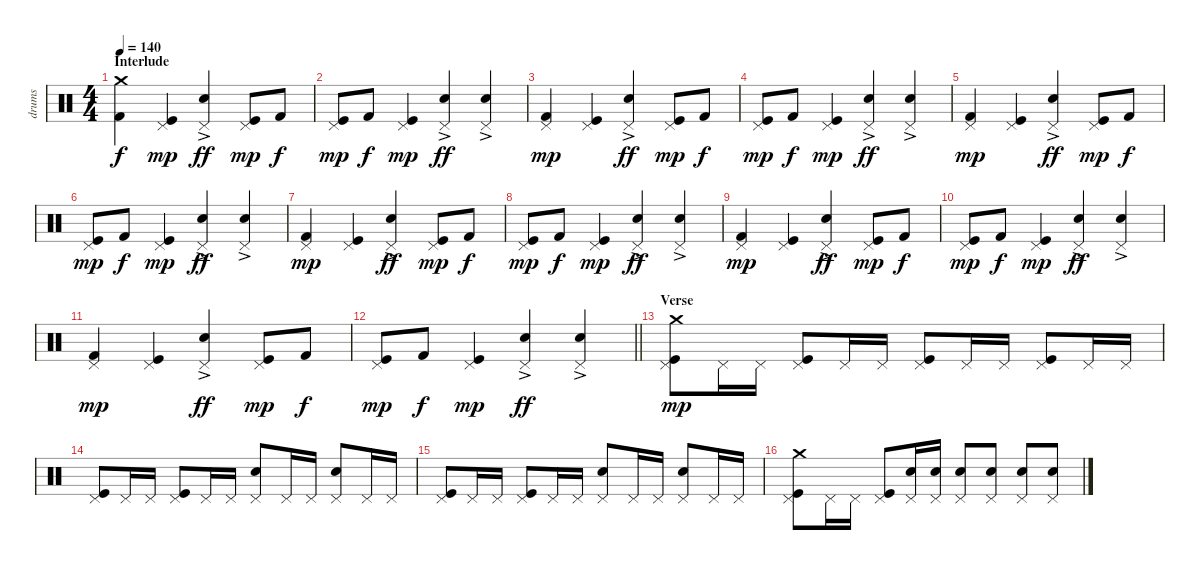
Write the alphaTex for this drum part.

\track ("drums" "drums") {instrument percussion}
\staff {score}
\articulation defaults
\ts (4 4)
\section ("" "Interlude")
\tempo 140
\clef neutral
\ks c
("Crash medium (hit)" "Kick (hit) 2").4{dy f} ("Pedal Hi-Hat (hit)" "Kick (hit)").4{dy mp} ("Pedal Hi-Hat (hit)" "Snare (hit) 2"{ac}).4{dy ff} ("Pedal Hi-Hat (hit)" "Kick (hit)").8{dy mp} "Kick (hit) 2".8{dy f} |
("Pedal Hi-Hat (hit)" "Kick (hit)").8{dy mp} "Kick (hit) 2".8{dy f} ("Pedal Hi-Hat (hit)" "Kick (hit)").4{dy mp} ("Pedal Hi-Hat (hit)" "Snare (hit) 2"{ac}).4{dy ff} ("Pedal Hi-Hat (hit)" "Snare (hit) 2"{ac}).4 |
("Pedal Hi-Hat (hit)" "Kick (hit) 2").4{dy mp} ("Pedal Hi-Hat (hit)" "Kick (hit)").4 ("Pedal Hi-Hat (hit)" "Snare (hit) 2"{ac}).4{dy ff} ("Pedal Hi-Hat (hit)" "Kick (hit)").8{dy mp} "Kick (hit) 2".8{dy f} |
("Pedal Hi-Hat (hit)" "Kick (hit)").8{dy mp} "Kick (hit) 2".8{dy f} ("Pedal Hi-Hat (hit)" "Kick (hit)").4{dy mp} ("Pedal Hi-Hat (hit)" "Snare (hit) 2"{ac}).4{dy ff} ("Pedal Hi-Hat (hit)" "Snare (hit) 2"{ac}).4 |
("Pedal Hi-Hat (hit)" "Kick (hit) 2").4{dy mp} ("Pedal Hi-Hat (hit)" "Kick (hit)").4 ("Pedal Hi-Hat (hit)" "Snare (hit) 2"{ac}).4{dy ff} ("Pedal Hi-Hat (hit)" "Kick (hit)").8{dy mp} "Kick (hit) 2".8{dy f} |
("Pedal Hi-Hat (hit)" "Kick (hit)").8{dy mp} "Kick (hit) 2".8{dy f} ("Pedal Hi-Hat (hit)" "Kick (hit)").4{dy mp} ("Pedal Hi-Hat (hit)" "Snare (hit) 2"{ac}).4{dy ff} ("Pedal Hi-Hat (hit)" "Snare (hit) 2"{ac}).4 |
("Pedal Hi-Hat (hit)" "Kick (hit) 2").4{dy mp} ("Pedal Hi-Hat (hit)" "Kick (hit)").4 ("Pedal Hi-Hat (hit)" "Snare (hit) 2"{ac}).4{dy ff} ("Pedal Hi-Hat (hit)" "Kick (hit)").8{dy mp} "Kick (hit) 2".8{dy f} |
("Pedal Hi-Hat (hit)" "Kick (hit)").8{dy mp} "Kick (hit) 2".8{dy f} ("Pedal Hi-Hat (hit)" "Kick (hit)").4{dy mp} ("Pedal Hi-Hat (hit)" "Snare (hit) 2"{ac}).4{dy ff} ("Pedal Hi-Hat (hit)" "Snare (hit) 2"{ac}).4 |
("Pedal Hi-Hat (hit)" "Kick (hit) 2").4{dy mp} ("Pedal Hi-Hat (hit)" "Kick (hit)").4 ("Pedal Hi-Hat (hit)" "Snare (hit) 2"{ac}).4{dy ff} ("Pedal Hi-Hat (hit)" "Kick (hit)").8{dy mp} "Kick (hit) 2".8{dy f} |
("Pedal Hi-Hat (hit)" "Kick (hit)").8{dy mp} "Kick (hit) 2".8{dy f} ("Pedal Hi-Hat (hit)" "Kick (hit)").4{dy mp} ("Pedal Hi-Hat (hit)" "Snare (hit) 2"{ac}).4{dy ff} ("Pedal Hi-Hat (hit)" "Snare (hit) 2"{ac}).4 |
("Pedal Hi-Hat (hit)" "Kick (hit) 2").4{dy mp} ("Pedal Hi-Hat (hit)" "Kick (hit)").4 ("Pedal Hi-Hat (hit)" "Snare (hit) 2"{ac}).4{dy ff} ("Pedal Hi-Hat (hit)" "Kick (hit)").8{dy mp} "Kick (hit) 2".8{dy f} |
\barLineRight lightlight
("Pedal Hi-Hat (hit)" "Kick (hit)").8{dy mp} "Kick (hit) 2".8{dy f} ("Pedal Hi-Hat (hit)" "Kick (hit)").4{dy mp} ("Pedal Hi-Hat (hit)" "Snare (hit) 2"{ac}).4{dy ff} ("Pedal Hi-Hat (hit)" "Snare (hit) 2"{ac}).4 |
\section ("" "Verse")
("Crash medium (hit)" "Pedal Hi-Hat (hit)" "Kick (hit)").8{dy mp} "Pedal Hi-Hat (hit)".16 "Pedal Hi-Hat (hit)".16 ("Pedal Hi-Hat (hit)" "Kick (hit)").8 "Pedal Hi-Hat (hit)".16 "Pedal Hi-Hat (hit)".16 ("Pedal Hi-Hat (hit)" "Kick (hit)").8 "Pedal Hi-Hat (hit)".16 "Pedal Hi-Hat (hit)".16 ("Pedal Hi-Hat (hit)" "Kick (hit)").8 "Pedal Hi-Hat (hit)".16 "Pedal Hi-Hat (hit)".16 |
("Pedal Hi-Hat (hit)" "Kick (hit)").8 "Pedal Hi-Hat (hit)".16 "Pedal Hi-Hat (hit)".16 ("Pedal Hi-Hat (hit)" "Kick (hit)").8 "Pedal Hi-Hat (hit)".16 "Pedal Hi-Hat (hit)".16 ("Pedal Hi-Hat (hit)" "Snare (hit) 2").8 "Pedal Hi-Hat (hit)".16 "Pedal Hi-Hat (hit)".16 ("Pedal Hi-Hat (hit)" "Snare (hit) 2").8 "Pedal Hi-Hat (hit)".16 "Pedal Hi-Hat (hit)".16 |
("Pedal Hi-Hat (hit)" "Kick (hit)").8 "Pedal Hi-Hat (hit)".16 "Pedal Hi-Hat (hit)".16 ("Pedal Hi-Hat (hit)" "Kick (hit)").8 "Pedal Hi-Hat (hit)".16 "Pedal Hi-Hat (hit)".16 ("Pedal Hi-Hat (hit)" "Snare (hit) 2").8 "Pedal Hi-Hat (hit)".16 "Pedal Hi-Hat (hit)".16 ("Pedal Hi-Hat (hit)" "Snare (hit) 2").8 "Pedal Hi-Hat (hit)".16 "Pedal Hi-Hat (hit)".16 |
("Crash medium (hit)" "Pedal Hi-Hat (hit)" "Kick (hit)").8 "Pedal Hi-Hat (hit)".16 "Pedal Hi-Hat (hit)".16 ("Pedal Hi-Hat (hit)" "Kick (hit)").8 ("Pedal Hi-Hat (hit)" "Snare (hit) 2").16 ("Pedal Hi-Hat (hit)" "Snare (hit) 2").16 ("Pedal Hi-Hat (hit)" "Snare (hit) 2").8 ("Pedal Hi-Hat (hit)" "Snare (hit) 2").8 ("Pedal Hi-Hat (hit)" "Snare (hit) 2").8 ("Pedal Hi-Hat (hit)" "Snare (hit) 2").8
